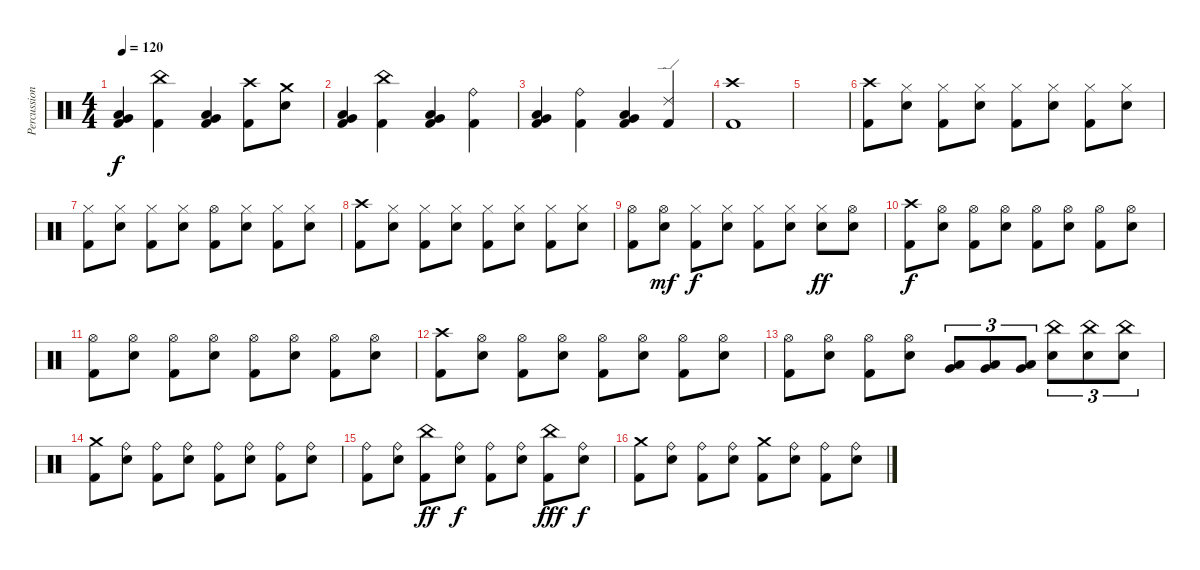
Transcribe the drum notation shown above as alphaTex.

\track ("Percussion" "Percussion") {instrument percussion}
\staff {score}
\articulation defaults
\ts (4 4)
\tempo 120
\clef neutral
\ks c
("Very Low Tom (hit)" "Low Floor Tom (hit)" "Kick (hit) 2").4{dy f} ("China (hit)" "Kick (hit) 2").4 ("Very Low Tom (hit)" "Low Floor Tom (hit)" "Kick (hit) 2").4 ("Crash high (hit)" "Kick (hit) 2").8 ("Crash medium (hit)" "Snare (hit) 2").8 |
("Very Low Tom (hit)" "Low Floor Tom (hit)" "Kick (hit) 2").4 ("China (hit)" "Kick (hit) 2").4 ("Very Low Tom (hit)" "Low Floor Tom (hit)" "Kick (hit) 2").4 ("Ride (bell)" "Kick (hit) 2").4 |
("Very Low Tom (hit)" "Low Floor Tom (hit)" "Kick (hit) 2").4 ("Ride (bell)" "Kick (hit) 2").4 ("Very Low Tom (hit)" "Low Floor Tom (hit)" "Kick (hit) 2").4 ("Ride (edge) 2" "Kick (hit) 2").4 |
("Crash high (hit)" "Kick (hit) 2").1 |
|
("Crash high (hit)" "Kick (hit) 2").8 ("Hi-Hat (closed)" "Snare (hit) 2").8 ("Hi-Hat (closed)" "Kick (hit) 2").8 ("Hi-Hat (closed)" "Snare (hit) 2").8 ("Hi-Hat (closed)" "Kick (hit) 2").8 ("Hi-Hat (closed)" "Snare (hit) 2").8 ("Hi-Hat (closed)" "Kick (hit) 2").8 ("Hi-Hat (closed)" "Snare (hit) 2").8 |
("Hi-Hat (closed)" "Kick (hit) 2").8 ("Hi-Hat (closed)" "Snare (hit) 2").8 ("Hi-Hat (closed)" "Kick (hit) 2").8 ("Hi-Hat (closed)" "Snare (hit) 2").8 ("Hi-Hat (open)" "Kick (hit) 2").8 ("Hi-Hat (closed)" "Snare (hit) 2").8 ("Hi-Hat (closed)" "Kick (hit) 2").8 ("Hi-Hat (closed)" "Snare (hit) 2").8 |
("Crash high (hit)" "Kick (hit) 2").8 ("Hi-Hat (closed)" "Snare (hit) 2").8 ("Hi-Hat (closed)" "Kick (hit) 2").8 ("Hi-Hat (closed)" "Snare (hit) 2").8 ("Hi-Hat (closed)" "Kick (hit) 2").8 ("Hi-Hat (closed)" "Snare (hit) 2").8 ("Hi-Hat (closed)" "Kick (hit) 2").8 ("Hi-Hat (closed)" "Snare (hit) 2").8 |
("Hi-Hat (open)" "Kick (hit) 2").8 ("Hi-Hat (open)" "Snare (hit) 2").8{dy mf} ("Hi-Hat (closed)" "Kick (hit) 2").8{dy f} ("Hi-Hat (closed)" "Snare (hit) 2").8 ("Hi-Hat (closed)" "Kick (hit) 2").8 ("Hi-Hat (closed)" "Snare (hit) 2").8 ("Hi-Hat (closed)" "Snare (hit) 2").8{dy ff} ("Hi-Hat (open)" "Snare (hit) 2").8 |
("Crash high (hit)" "Kick (hit) 2").8{dy f} ("Hi-Hat (open)" "Snare (hit) 2").8 ("Hi-Hat (open)" "Kick (hit) 2").8 ("Hi-Hat (open)" "Snare (hit) 2").8 ("Hi-Hat (open)" "Kick (hit) 2").8 ("Hi-Hat (open)" "Snare (hit) 2").8 ("Hi-Hat (open)" "Kick (hit) 2").8 ("Hi-Hat (open)" "Snare (hit) 2").8 |
("Hi-Hat (open)" "Kick (hit) 2").8 ("Hi-Hat (open)" "Snare (hit) 2").8 ("Hi-Hat (open)" "Kick (hit) 2").8 ("Hi-Hat (open)" "Snare (hit) 2").8 ("Hi-Hat (open)" "Kick (hit) 2").8 ("Hi-Hat (open)" "Snare (hit) 2").8 ("Hi-Hat (open)" "Kick (hit) 2").8 ("Hi-Hat (open)" "Snare (hit) 2").8 |
("Crash high (hit)" "Kick (hit) 2").8 ("Hi-Hat (open)" "Snare (hit) 2").8 ("Hi-Hat (open)" "Kick (hit) 2").8 ("Hi-Hat (open)" "Snare (hit) 2").8 ("Hi-Hat (open)" "Kick (hit) 2").8 ("Hi-Hat (open)" "Snare (hit) 2").8 ("Hi-Hat (open)" "Kick (hit) 2").8 ("Hi-Hat (open)" "Snare (hit) 2").8 |
("Hi-Hat (open)" "Kick (hit) 2").8 ("Hi-Hat (open)" "Snare (hit) 2").8 ("Hi-Hat (open)" "Kick (hit) 2").8 ("Hi-Hat (open)" "Snare (hit) 2").8 ("Very Low Tom (hit)" "Low Floor Tom (hit)").8{tu (3 2)} ("Very Low Tom (hit)" "Low Floor Tom (hit)").8{tu (3 2)} ("Very Low Tom (hit)" "Low Floor Tom (hit)").8{tu (3 2)} ("China (hit)" "Snare (hit) 2").8{tu (3 2)} ("China (hit)" "Snare (hit) 2").8{tu (3 2)} ("China (hit)" "Snare (hit) 2").8{tu (3 2)} |
("Crash medium (hit)" "Kick (hit) 2").8 ("Ride (bell)" "Snare (hit) 2").8 ("Ride (bell)" "Kick (hit) 2").8 ("Ride (bell)" "Snare (hit) 2").8 ("Ride (bell)" "Kick (hit) 2").8 ("Ride (bell)" "Snare (hit) 2").8 ("Ride (bell)" "Kick (hit) 2").8 ("Ride (bell)" "Snare (hit) 2").8 |
("Ride (bell)" "Kick (hit) 2").8 ("Ride (bell)" "Snare (hit) 2").8 ("China (hit)" "Kick (hit) 2").8{dy ff} ("Ride (bell)" "Snare (hit) 2").8{dy f} ("Ride (bell)" "Kick (hit) 2").8 ("Ride (bell)" "Snare (hit) 2").8 ("China (hit)" "Kick (hit) 2").8{dy fff} ("Ride (bell)" "Snare (hit) 2").8{dy f} |
("Crash medium (hit)" "Kick (hit) 2").8 ("Ride (bell)" "Snare (hit) 2").8 ("Ride (bell)" "Kick (hit) 2").8 ("Ride (bell)" "Snare (hit) 2").8 ("Crash medium (hit)" "Kick (hit) 2").8 ("Ride (bell)" "Snare (hit) 2").8 ("Ride (bell)" "Kick (hit) 2").8 ("Ride (bell)" "Snare (hit) 2").8
